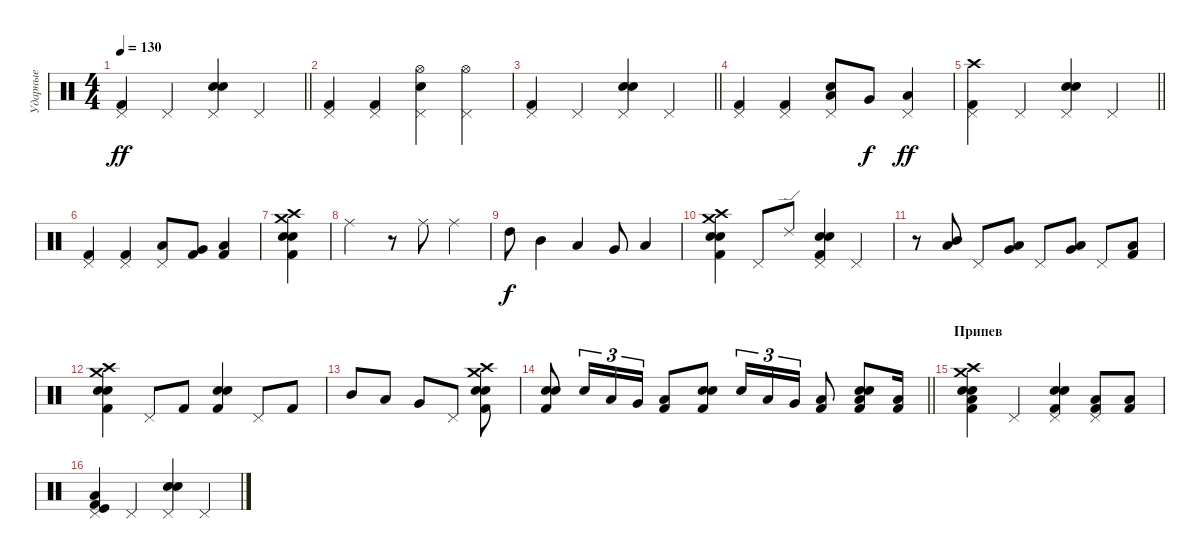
\track ("Ударные" "Ударные") {instrument percussion}
\staff {score}
\articulation defaults
\ts (4 4)
\tempo 130
\clef neutral
\barLineRight lightlight
\ks c
("Kick (hit) 2" "Pedal Hi-Hat (hit)").4{dy ff} "Pedal Hi-Hat (hit)".4 ("Pedal Hi-Hat (hit)" "Snare (hit) 2" "Electric Snare (hit)").4 "Pedal Hi-Hat (hit)".4 |
("Kick (hit) 2" "Pedal Hi-Hat (hit)").4 ("Kick (hit) 2" "Pedal Hi-Hat (hit)").4 ("Pedal Hi-Hat (hit)" "Electric Snare (hit)" "Hi-Hat (open)").4 ("Pedal Hi-Hat (hit)" "Hi-Hat (open)").4 |
\barLineRight lightlight
("Kick (hit) 2" "Pedal Hi-Hat (hit)").4 "Pedal Hi-Hat (hit)".4 ("Pedal Hi-Hat (hit)" "Snare (hit) 2" "Electric Snare (hit)").4 "Pedal Hi-Hat (hit)".4 |
("Kick (hit) 2" "Pedal Hi-Hat (hit)").4 ("Kick (hit) 2" "Pedal Hi-Hat (hit)").4 ("Pedal Hi-Hat (hit)" "Electric Snare (hit)" "Low Tom (hit)").8 "Very Low Tom (hit)".8{dy f} ("Low Floor Tom (hit)" "Pedal Hi-Hat (hit)").4{dy ff} |
\barLineRight lightlight
("Crash high (hit)" "Kick (hit) 2" "Pedal Hi-Hat (hit)").4 "Pedal Hi-Hat (hit)".4 ("Pedal Hi-Hat (hit)" "Snare (hit) 2" "Electric Snare (hit)").4 "Pedal Hi-Hat (hit)".4 |
("Kick (hit) 2" "Pedal Hi-Hat (hit)").4 ("Kick (hit) 2" "Pedal Hi-Hat (hit)").4 ("Pedal Hi-Hat (hit)" "Low Tom (hit)").8 ("Kick (hit) 2" "Very Low Tom (hit)").8 ("Kick (hit) 2" "Low Floor Tom (hit)").4 |
("Crash high (hit)" "Kick (hit) 2" "Electric Snare (hit)" "Snare (hit) 2" "Crash medium (hit)").4 |
"Ride (middle)".2 r.8 "Ride (middle)".8 "Ride (middle)".4 |
"High Tom (hit)".8{dy f} "Mid Tom (hit)".4 "Low Tom (hit)".4 "Very Low Tom (hit)".8 "Low Floor Tom (hit)".4 |
("Crash medium (hit)" "Kick (hit) 2" "Crash high (hit)" "Electric Snare (hit)" "Snare (hit) 2").4 "Pedal Hi-Hat (hit)".8 "Ride (edge) 2".8 ("Electric Snare (hit)" "Snare (hit) 2" "Kick (hit) 2" "Pedal Hi-Hat (hit)").4 "Pedal Hi-Hat (hit)".4 |
r.8 ("Mid Tom (hit)" "Low Tom (hit)").8 "Pedal Hi-Hat (hit)".8 ("Low Tom (hit)" "Very Low Tom (hit)").8 "Pedal Hi-Hat (hit)".8 ("Very Low Tom (hit)" "Low Floor Tom (hit)").8 "Pedal Hi-Hat (hit)".8 ("Kick (hit) 2" "Low Floor Tom (hit)").8 |
("Crash high (hit)" "Electric Snare (hit)" "Snare (hit) 2" "Kick (hit) 2" "Crash medium (hit)").4 "Pedal Hi-Hat (hit)".8 "Kick (hit) 2".8 ("Electric Snare (hit)" "Snare (hit) 2" "Kick (hit) 2").4 "Pedal Hi-Hat (hit)".8 "Kick (hit) 2".8 |
"Mid Tom (hit)".8 "Low Tom (hit)".8 "Very Low Tom (hit)".8 "Pedal Hi-Hat (hit)".8 ("Electric Snare (hit)" "Snare (hit) 2" "Kick (hit) 2" "Crash high (hit)" "Crash medium (hit)").8 |
\barLineRight lightlight
("Kick (hit) 2" "Electric Snare (hit)" "Snare (hit) 2").8 "Electric Snare (hit)".16{tu (3 2)} "Low Tom (hit)".16{tu (3 2)} "Very Low Tom (hit)".16{tu (3 2)} ("Kick (hit) 2" "Low Floor Tom (hit)").8 ("Kick (hit) 2" "Electric Snare (hit)" "Snare (hit) 2").8 "Electric Snare (hit)".16{tu (3 2)} "Low Tom (hit)".16{tu (3 2)} "Very Low Tom (hit)".16{tu (3 2)} ("Kick (hit) 2" "Low Floor Tom (hit)").8 ("Kick (hit) 2" "Snare (hit) 2" "Electric Snare (hit)" "Low Floor Tom (hit)").8 ("Kick (hit) 2" "Low Floor Tom (hit)").16 |
\section ("" "Припев")
("Kick (hit) 2" "Electric Snare (hit)" "Snare (hit) 2" "Crash high (hit)" "Crash medium (hit)" "Low Floor Tom (hit)").4 "Pedal Hi-Hat (hit)".4 ("Pedal Hi-Hat (hit)" "Kick (hit) 2" "Snare (hit) 2" "Electric Snare (hit)").4 ("Kick (hit) 2" "Pedal Hi-Hat (hit)" "Low Floor Tom (hit)").8 ("Low Floor Tom (hit)" "Kick (hit) 2").8 |
("Kick (hit) 2" "Kick (hit)" "Pedal Hi-Hat (hit)" "Low Floor Tom (hit)").4 "Pedal Hi-Hat (hit)".4 ("Pedal Hi-Hat (hit)" "Snare (hit) 2" "Electric Snare (hit)").4 "Pedal Hi-Hat (hit)".4
